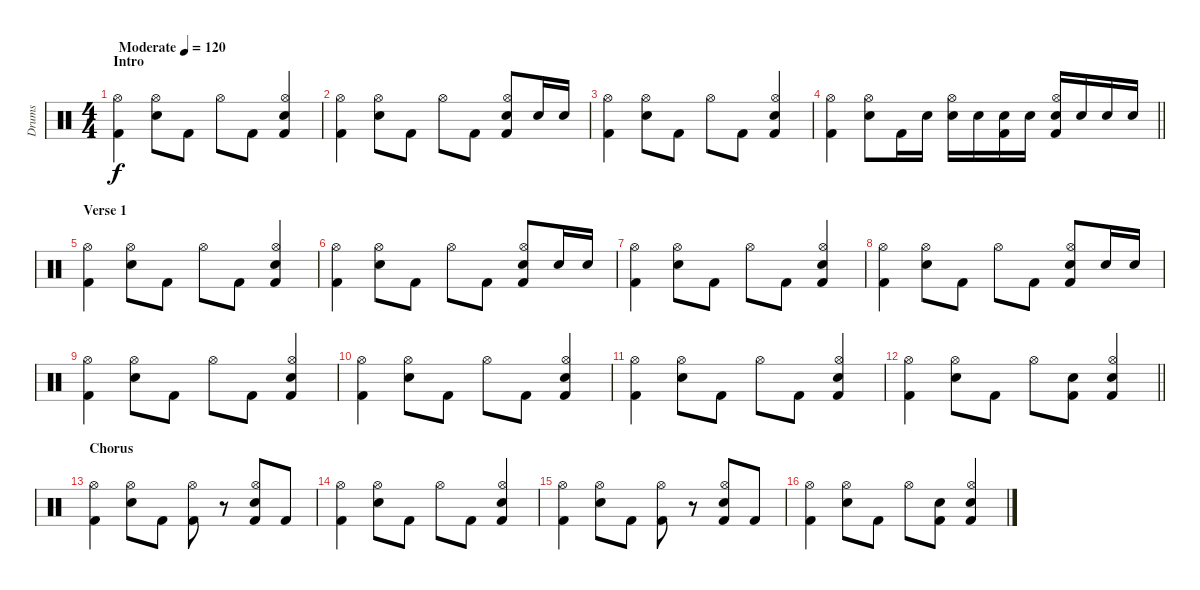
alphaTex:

\track ("Drums" "Drums") {instrument percussion}
\staff {score}
\articulation defaults
\ts (4 4)
\section ("" "Intro")
\tempo (120 "Moderate")
\clef neutral
\ks c
("Kick (hit) 2" "Hi-Hat (open)").4{dy f} ("Snare (hit) 2" "Hi-Hat (open)").8 "Kick (hit) 2".8 "Hi-Hat (open)".8 "Kick (hit) 2".8 ("Kick (hit) 2" "Snare (hit) 2" "Hi-Hat (open)").4 |
("Kick (hit) 2" "Hi-Hat (open)").4 ("Snare (hit) 2" "Hi-Hat (open)").8 "Kick (hit) 2".8 "Hi-Hat (open)".8 "Kick (hit) 2".8 ("Kick (hit) 2" "Snare (hit) 2" "Hi-Hat (open)").8 "Snare (hit) 2".16 "Snare (hit) 2".16 |
("Kick (hit) 2" "Hi-Hat (open)").4 ("Snare (hit) 2" "Hi-Hat (open)").8 "Kick (hit) 2".8 "Hi-Hat (open)".8 "Kick (hit) 2".8 ("Kick (hit) 2" "Snare (hit) 2" "Hi-Hat (open)").4 |
\barLineRight lightlight
("Kick (hit) 2" "Hi-Hat (open)").4 ("Snare (hit) 2" "Hi-Hat (open)").8 "Kick (hit) 2".16 "Snare (hit) 2".16 ("Snare (hit) 2" "Hi-Hat (open)").16 "Snare (hit) 2".16 ("Kick (hit) 2" "Snare (hit) 2").16 "Snare (hit) 2".16 ("Hi-Hat (open)" "Snare (hit) 2" "Kick (hit) 2").16 "Snare (hit) 2".16 "Snare (hit) 2".16 "Snare (hit) 2".16 |
\section ("" "Verse 1")
("Kick (hit) 2" "Hi-Hat (open)").4 ("Snare (hit) 2" "Hi-Hat (open)").8 "Kick (hit) 2".8 "Hi-Hat (open)".8 "Kick (hit) 2".8 ("Kick (hit) 2" "Snare (hit) 2" "Hi-Hat (open)").4 |
("Kick (hit) 2" "Hi-Hat (open)").4 ("Snare (hit) 2" "Hi-Hat (open)").8 "Kick (hit) 2".8 "Hi-Hat (open)".8 "Kick (hit) 2".8 ("Kick (hit) 2" "Snare (hit) 2" "Hi-Hat (open)").8 "Snare (hit) 2".16 "Snare (hit) 2".16 |
("Kick (hit) 2" "Hi-Hat (open)").4 ("Snare (hit) 2" "Hi-Hat (open)").8 "Kick (hit) 2".8 "Hi-Hat (open)".8 "Kick (hit) 2".8 ("Kick (hit) 2" "Snare (hit) 2" "Hi-Hat (open)").4 |
("Kick (hit) 2" "Hi-Hat (open)").4 ("Snare (hit) 2" "Hi-Hat (open)").8 "Kick (hit) 2".8 "Hi-Hat (open)".8 "Kick (hit) 2".8 ("Kick (hit) 2" "Snare (hit) 2" "Hi-Hat (open)").8 "Snare (hit) 2".16 "Snare (hit) 2".16 |
("Kick (hit) 2" "Hi-Hat (open)").4 ("Snare (hit) 2" "Hi-Hat (open)").8 "Kick (hit) 2".8 "Hi-Hat (open)".8 "Kick (hit) 2".8 ("Kick (hit) 2" "Snare (hit) 2" "Hi-Hat (open)").4 |
("Kick (hit) 2" "Hi-Hat (open)").4 ("Snare (hit) 2" "Hi-Hat (open)").8 "Kick (hit) 2".8 "Hi-Hat (open)".8 "Kick (hit) 2".8 ("Kick (hit) 2" "Snare (hit) 2" "Hi-Hat (open)").4 |
("Kick (hit) 2" "Hi-Hat (open)").4 ("Snare (hit) 2" "Hi-Hat (open)").8 "Kick (hit) 2".8 "Hi-Hat (open)".8 "Kick (hit) 2".8 ("Kick (hit) 2" "Snare (hit) 2" "Hi-Hat (open)").4 |
\barLineRight lightlight
("Kick (hit) 2" "Hi-Hat (open)").4 ("Snare (hit) 2" "Hi-Hat (open)").8 "Kick (hit) 2".8 "Hi-Hat (open)".8 ("Kick (hit) 2" "Snare (hit) 2").8 ("Kick (hit) 2" "Snare (hit) 2" "Hi-Hat (open)").4 |
\section ("" "Chorus")
("Kick (hit) 2" "Hi-Hat (open)").4 ("Snare (hit) 2" "Hi-Hat (open)").8 "Kick (hit) 2".8 ("Kick (hit) 2" "Hi-Hat (open)").8 r.8 ("Kick (hit) 2" "Snare (hit) 2" "Hi-Hat (open)").8 "Kick (hit) 2".8 |
("Kick (hit) 2" "Hi-Hat (open)").4 ("Snare (hit) 2" "Hi-Hat (open)").8 "Kick (hit) 2".8 "Hi-Hat (open)".8 "Kick (hit) 2".8 ("Kick (hit) 2" "Snare (hit) 2" "Hi-Hat (open)").4 |
("Kick (hit) 2" "Hi-Hat (open)").4 ("Snare (hit) 2" "Hi-Hat (open)").8 "Kick (hit) 2".8 ("Kick (hit) 2" "Hi-Hat (open)").8 r.8 ("Kick (hit) 2" "Snare (hit) 2" "Hi-Hat (open)").8 "Kick (hit) 2".8 |
("Kick (hit) 2" "Hi-Hat (open)").4 ("Snare (hit) 2" "Hi-Hat (open)").8 "Kick (hit) 2".8 "Hi-Hat (open)".8 ("Kick (hit) 2" "Snare (hit) 2").8 ("Kick (hit) 2" "Snare (hit) 2" "Hi-Hat (open)").4
